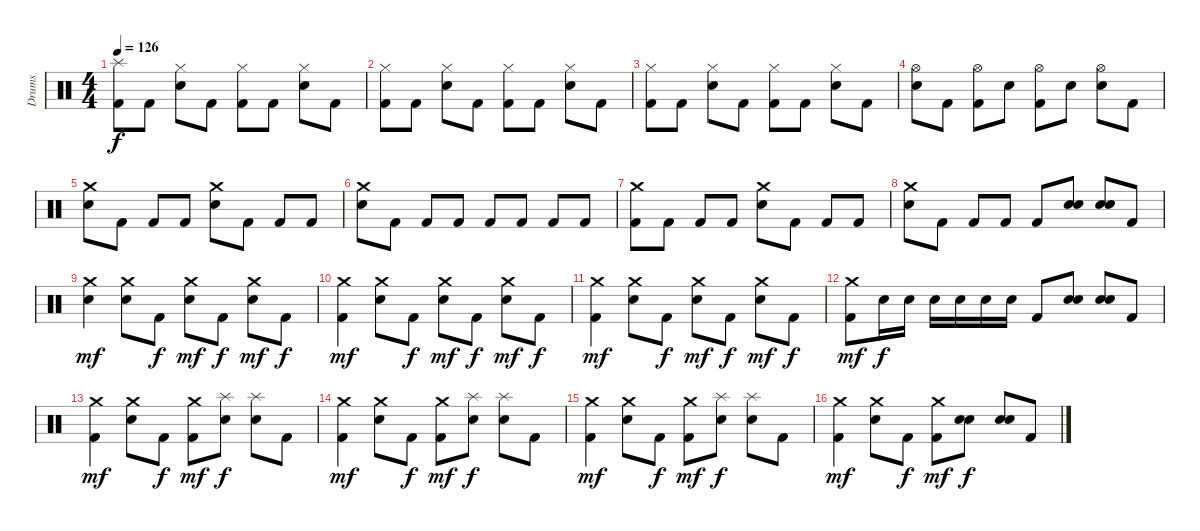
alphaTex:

\track ("Drums" "Drums") {instrument percussion}
\staff {score}
\articulation defaults
\ts (4 4)
\tempo 126
\clef neutral
\ks c
("Splash (hit)" "Kick (hit) 2").8{dy f} "Kick (hit) 2".8 ("Hi-Hat (closed)" "Electric Snare (hit)").8 "Kick (hit) 2".8 ("Hi-Hat (closed)" "Kick (hit) 2").8 "Kick (hit) 2".8 ("Hi-Hat (closed)" "Electric Snare (hit)").8 "Kick (hit) 2".8 |
("Hi-Hat (closed)" "Kick (hit) 2").8 "Kick (hit) 2".8 ("Hi-Hat (closed)" "Electric Snare (hit)").8 "Kick (hit) 2".8 ("Hi-Hat (closed)" "Kick (hit) 2").8 "Kick (hit) 2".8 ("Hi-Hat (closed)" "Electric Snare (hit)").8 "Kick (hit) 2".8 |
("Hi-Hat (closed)" "Kick (hit) 2").8 "Kick (hit) 2".8 ("Hi-Hat (closed)" "Electric Snare (hit)").8 "Kick (hit) 2".8 ("Hi-Hat (closed)" "Kick (hit) 2").8 "Kick (hit) 2".8 ("Hi-Hat (closed)" "Electric Snare (hit)").8 "Kick (hit) 2".8 |
("Hi-Hat (open)" "Electric Snare (hit)").8 "Kick (hit) 2".8 ("Hi-Hat (open)" "Kick (hit) 2").8 "Electric Snare (hit)".8 ("Hi-Hat (open)" "Kick (hit) 2").8 "Electric Snare (hit)".8 ("Hi-Hat (open)" "Electric Snare (hit)").8 "Kick (hit) 2".8 |
("Crash medium (hit)" "Electric Snare (hit)").8 "Kick (hit) 2".8 "Kick (hit) 2".8 "Kick (hit) 2".8 ("Crash medium (hit)" "Electric Snare (hit)").8 "Kick (hit) 2".8 "Kick (hit) 2".8 "Kick (hit) 2".8 |
("Crash medium (hit)" "Electric Snare (hit)").8 "Kick (hit) 2".8 "Kick (hit) 2".8 "Kick (hit) 2".8 "Kick (hit) 2".8 "Kick (hit) 2".8 "Kick (hit) 2".8 "Kick (hit) 2".8 |
("Crash medium (hit)" "Kick (hit) 2").8 "Kick (hit) 2".8 "Kick (hit) 2".8 "Kick (hit) 2".8 ("Crash medium (hit)" "Electric Snare (hit)").8 "Kick (hit) 2".8 "Kick (hit) 2".8 "Kick (hit) 2".8 |
("Crash medium (hit)" "Electric Snare (hit)").8 "Kick (hit) 2".8 "Kick (hit) 2".8 "Kick (hit) 2".8 "Kick (hit) 2".8 ("Electric Snare (hit)" "Electric Snare (hit)").8 ("Electric Snare (hit)" "Electric Snare (hit)").8 "Kick (hit) 2".8 |
("Crash medium (hit)" "Electric Snare (hit)").4{dy mf} ("Crash medium (hit)" "Electric Snare (hit)").8 "Kick (hit) 2".8{dy f} ("Crash medium (hit)" "Electric Snare (hit)").8{dy mf} "Kick (hit) 2".8{dy f} ("Crash medium (hit)" "Electric Snare (hit)").8{dy mf} "Kick (hit) 2".8{dy f} |
("Crash medium (hit)" "Kick (hit) 2").4{dy mf} ("Crash medium (hit)" "Electric Snare (hit)").8 "Kick (hit) 2".8{dy f} ("Crash medium (hit)" "Electric Snare (hit)").8{dy mf} "Kick (hit) 2".8{dy f} ("Crash medium (hit)" "Electric Snare (hit)").8{dy mf} "Kick (hit) 2".8{dy f} |
("Crash medium (hit)" "Kick (hit) 2").4{dy mf} ("Crash medium (hit)" "Electric Snare (hit)").8 "Kick (hit) 2".8{dy f} ("Crash medium (hit)" "Electric Snare (hit)").8{dy mf} "Kick (hit) 2".8{dy f} ("Crash medium (hit)" "Electric Snare (hit)").8{dy mf} "Kick (hit) 2".8{dy f} |
("Crash medium (hit)" "Kick (hit) 2").8{dy mf} "Electric Snare (hit)".16{dy f} "Electric Snare (hit)".16 "Electric Snare (hit)".16 "Electric Snare (hit)".16 "Electric Snare (hit)".16 "Electric Snare (hit)".16 "Kick (hit) 2".8 ("Electric Snare (hit)" "Electric Snare (hit)").8 ("Electric Snare (hit)" "Electric Snare (hit)").8 "Kick (hit) 2".8 |
("Crash medium (hit)" "Kick (hit) 2").4{dy mf} ("Crash medium (hit)" "Electric Snare (hit)").8 "Kick (hit) 2".8{dy f} ("Crash medium (hit)" "Kick (hit) 2").8{dy mf} ("Splash (hit)" "Electric Snare (hit)").8{dy f} ("Splash (hit)" "Electric Snare (hit)").8 "Kick (hit) 2".8 |
("Crash medium (hit)" "Kick (hit) 2").4{dy mf} ("Crash medium (hit)" "Electric Snare (hit)").8 "Kick (hit) 2".8{dy f} ("Crash medium (hit)" "Kick (hit) 2").8{dy mf} ("Splash (hit)" "Electric Snare (hit)").8{dy f} ("Splash (hit)" "Electric Snare (hit)").8 "Kick (hit) 2".8 |
("Crash medium (hit)" "Kick (hit) 2").4{dy mf} ("Crash medium (hit)" "Electric Snare (hit)").8 "Kick (hit) 2".8{dy f} ("Crash medium (hit)" "Kick (hit) 2").8{dy mf} ("Splash (hit)" "Electric Snare (hit)").8{dy f} ("Splash (hit)" "Electric Snare (hit)").8 "Kick (hit) 2".8 |
("Crash medium (hit)" "Kick (hit) 2").4{dy mf} ("Crash medium (hit)" "Electric Snare (hit)").8 "Kick (hit) 2".8{dy f} ("Crash medium (hit)" "Kick (hit) 2").8{dy mf} ("Electric Snare (hit)" "Electric Snare (hit)").8{dy f} ("Electric Snare (hit)" "Electric Snare (hit)").8 "Kick (hit) 2".8
